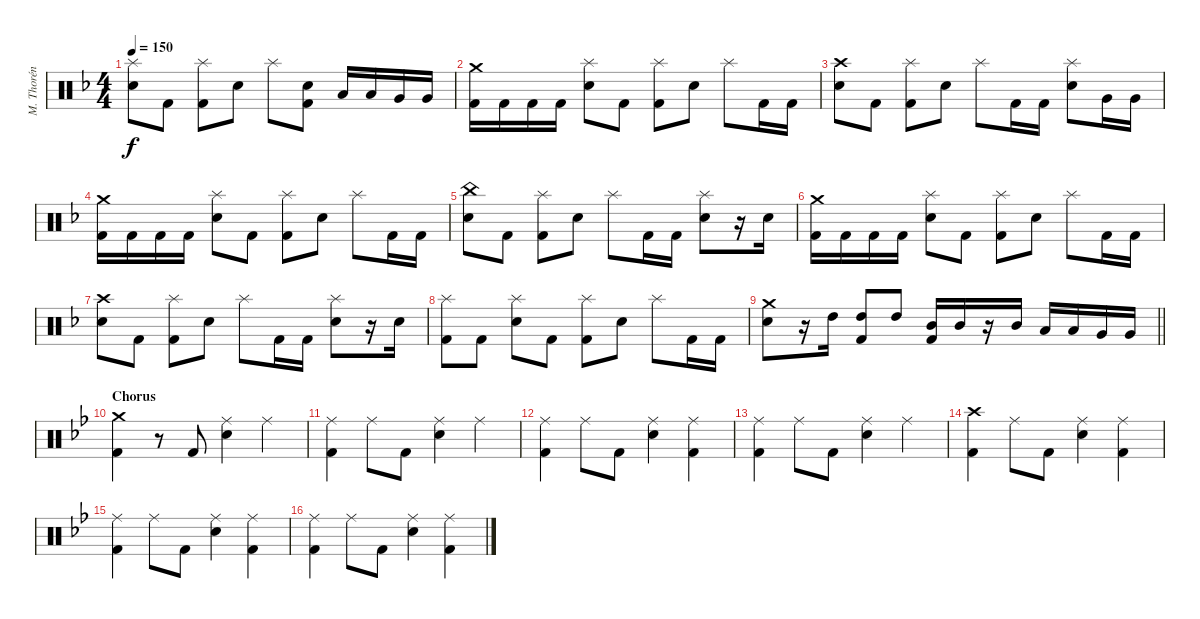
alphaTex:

\track ("M. Thorén (Drums)" "M. Thorén ") {instrument percussion}
\staff {score}
\articulation defaults
\ts (4 4)
\tempo 150
\clef neutral
\ks dminor
("Splash (hit)" "Electric Snare (hit)").8{dy f} "Kick (hit) 2".8 ("Splash (hit)" "Kick (hit) 2").8 "Electric Snare (hit)".8 "Splash (hit)".8 ("Electric Snare (hit)" "Kick (hit) 2").8 "Low Tom (hit)".16 "Low Tom (hit)".16 "Very Low Tom (hit)".16 "Very Low Tom (hit)".16 |
("Crash medium (hit)" "Kick (hit) 2").16 "Kick (hit) 2".16 "Kick (hit) 2".16 "Kick (hit) 2".16 ("Splash (hit)" "Electric Snare (hit)").8 "Kick (hit) 2".8 ("Splash (hit)" "Kick (hit) 2").8 "Electric Snare (hit)".8 "Splash (hit)".8 "Kick (hit) 2".16 "Kick (hit) 2".16 |
("Crash high (hit)" "Electric Snare (hit)").8 "Kick (hit) 2".8 ("Splash (hit)" "Kick (hit) 2").8 "Electric Snare (hit)".8 "Splash (hit)".8 "Kick (hit) 2".16 "Kick (hit) 2".16 ("Splash (hit)" "Electric Snare (hit)").8 "Very Low Tom (hit)".16 "Very Low Tom (hit)".16 |
("Crash medium (hit)" "Kick (hit) 2").16 "Kick (hit) 2".16 "Kick (hit) 2".16 "Kick (hit) 2".16 ("Splash (hit)" "Electric Snare (hit)").8 "Kick (hit) 2".8 ("Splash (hit)" "Kick (hit) 2").8 "Electric Snare (hit)".8 "Splash (hit)".8 "Kick (hit) 2".16 "Kick (hit) 2".16 |
("China (hit)" "Electric Snare (hit)").8 "Kick (hit) 2".8 ("Splash (hit)" "Kick (hit) 2").8 "Electric Snare (hit)".8 "Splash (hit)".8 "Kick (hit) 2".16 "Kick (hit) 2".16 ("Splash (hit)" "Electric Snare (hit)").8 r.16 "Electric Snare (hit)".16 |
("Crash medium (hit)" "Kick (hit) 2").16 "Kick (hit) 2".16 "Kick (hit) 2".16 "Kick (hit) 2".16 ("Splash (hit)" "Electric Snare (hit)").8 "Kick (hit) 2".8 ("Splash (hit)" "Kick (hit) 2").8 "Electric Snare (hit)".8 "Splash (hit)".8 "Kick (hit) 2".16 "Kick (hit) 2".16 |
("Crash high (hit)" "Electric Snare (hit)").8 "Kick (hit) 2".8 ("Splash (hit)" "Kick (hit) 2").8 "Electric Snare (hit)".8 "Splash (hit)".8 "Kick (hit) 2".16 "Kick (hit) 2".16 ("Splash (hit)" "Electric Snare (hit)").8 r.16 "Electric Snare (hit)".16 |
("Splash (hit)" "Kick (hit) 2").8 "Kick (hit) 2".8 ("Splash (hit)" "Electric Snare (hit)").8 "Kick (hit) 2".8 ("Splash (hit)" "Kick (hit) 2").8 "Electric Snare (hit)".8 "Splash (hit)".8 "Kick (hit) 2".16 "Kick (hit) 2".16 |
\barLineRight lightlight
("Crash medium (hit)" "Electric Snare (hit)").8 r.16 "High Tom (hit)".16 ("High Tom (hit)" "Kick (hit) 2").8 "High Tom (hit)".8 ("Mid Tom (hit)" "Kick (hit) 2").16 "Mid Tom (hit)".16 r.16 "Mid Tom (hit)".16 "Low Tom (hit)".16 "Low Tom (hit)".16 "Very Low Tom (hit)".16 "Very Low Tom (hit)".16 |
\section ("" "Chorus")
\ks gminor
("Crash medium (hit)" "Kick (hit) 2").4 r.8 "Kick (hit) 2".8 ("Ride (middle)" "Electric Snare (hit)").4 "Ride (middle)".4 |
("Ride (middle)" "Kick (hit) 2").4 "Ride (middle)".8 "Kick (hit) 2".8 ("Ride (middle)" "Electric Snare (hit)").4 "Ride (middle)".4 |
("Ride (middle)" "Kick (hit) 2").4 "Ride (middle)".8 "Kick (hit) 2".8 ("Ride (middle)" "Electric Snare (hit)").4 ("Ride (middle)" "Kick (hit) 2").4 |
("Ride (middle)" "Kick (hit) 2").4 "Ride (middle)".8 "Kick (hit) 2".8 ("Ride (middle)" "Electric Snare (hit)").4 "Ride (middle)".4 |
("Crash high (hit)" "Kick (hit) 2").4 "Ride (middle)".8 "Kick (hit) 2".8 ("Ride (middle)" "Electric Snare (hit)").4 ("Ride (middle)" "Kick (hit) 2").4 |
("Ride (middle)" "Kick (hit) 2").4 "Ride (middle)".8 "Kick (hit) 2".8 ("Ride (middle)" "Electric Snare (hit)").4 ("Ride (middle)" "Kick (hit) 2").4 |
("Ride (middle)" "Kick (hit) 2").4 "Ride (middle)".8 "Kick (hit) 2".8 ("Ride (middle)" "Electric Snare (hit)").4 ("Ride (middle)" "Kick (hit) 2").4
